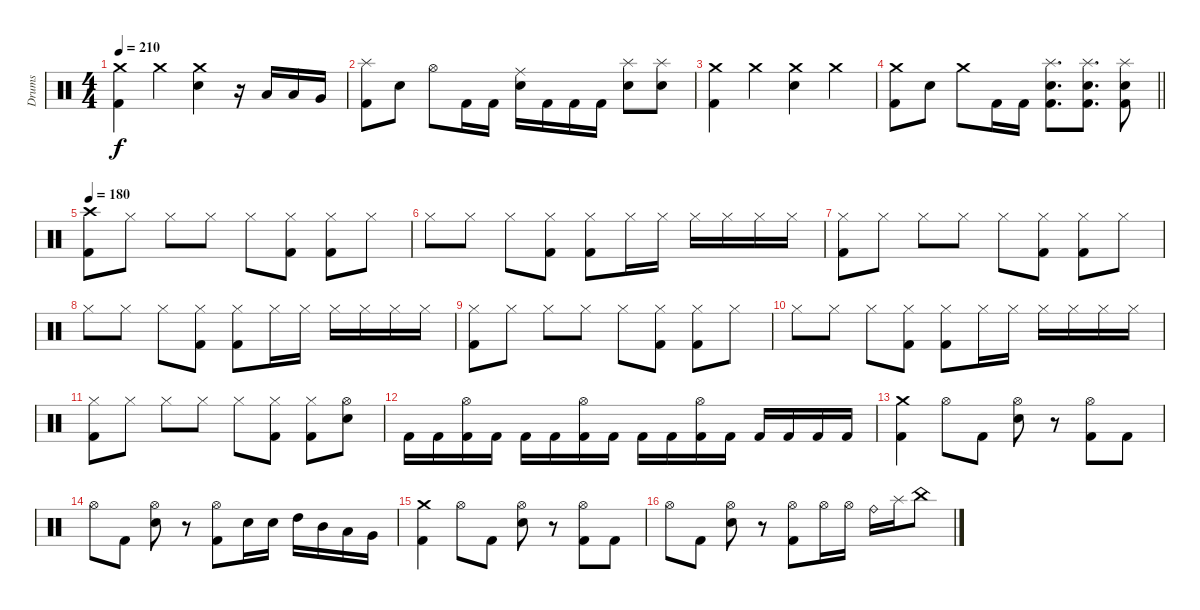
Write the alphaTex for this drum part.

\track ("Drums" "Drums") {instrument percussion}
\staff {score}
\articulation defaults
\ts (4 4)
\tempo 210
\clef neutral
\ks c
("Crash medium (hit)" "Kick (hit) 2").4{dy f} "Crash medium (hit)".4 ("Crash medium (hit)" "Electric Snare (hit)").4 r.16 "Low Tom (hit)".16 "Low Tom (hit)".16 "Very Low Tom (hit)".16 |
("Splash (hit)" "Kick (hit) 2").8 "Electric Snare (hit)".8 "Hi-Hat (open)".8 "Kick (hit) 2".16 "Kick (hit) 2".16 ("Ride (middle)" "Electric Snare (hit)").16 "Kick (hit) 2".16 "Kick (hit) 2".16 "Kick (hit) 2".16 ("Splash (hit)" "Electric Snare (hit)").8 ("Splash (hit)" "Electric Snare (hit)").8 |
("Crash medium (hit)" "Kick (hit) 2").4 "Crash medium (hit)".4 ("Crash medium (hit)" "Electric Snare (hit)").4 "Crash medium (hit)".4 |
\barLineRight lightlight
("Crash medium (hit)" "Kick (hit) 2").8 "Electric Snare (hit)".8 "Crash medium (hit)".8 "Kick (hit) 2".16 "Kick (hit) 2".16 ("Splash (hit)" "Electric Snare (hit)" "Kick (hit) 2").8{d} ("Splash (hit)" "Electric Snare (hit)" "Kick (hit) 2").8{d} ("Splash (hit)" "Electric Snare (hit)" "Kick (hit) 2").8 |
\section ("" "")
\tempo 180
("Crash high (hit)" "Kick (hit) 2").8 "Hi-Hat (closed)".8 "Hi-Hat (closed)".8 "Hi-Hat (closed)".8 "Hi-Hat (closed)".8 ("Hi-Hat (closed)" "Kick (hit) 2").8 ("Hi-Hat (closed)" "Kick (hit) 2").8 "Hi-Hat (closed)".8 |
"Hi-Hat (closed)".8 "Hi-Hat (closed)".8 "Hi-Hat (closed)".8 ("Hi-Hat (closed)" "Kick (hit) 2").8 ("Hi-Hat (closed)" "Kick (hit) 2").8 "Hi-Hat (closed)".16 "Hi-Hat (closed)".16 "Hi-Hat (closed)".16 "Hi-Hat (closed)".16 "Hi-Hat (closed)".16 "Hi-Hat (closed)".16 |
("Hi-Hat (closed)" "Kick (hit) 2").8 "Hi-Hat (closed)".8 "Hi-Hat (closed)".8 "Hi-Hat (closed)".8 "Hi-Hat (closed)".8 ("Hi-Hat (closed)" "Kick (hit) 2").8 ("Hi-Hat (closed)" "Kick (hit) 2").8 "Hi-Hat (closed)".8 |
"Hi-Hat (closed)".8 "Hi-Hat (closed)".8 "Hi-Hat (closed)".8 ("Hi-Hat (closed)" "Kick (hit) 2").8 ("Hi-Hat (closed)" "Kick (hit) 2").8 "Hi-Hat (closed)".16 "Hi-Hat (closed)".16 "Hi-Hat (closed)".16 "Hi-Hat (closed)".16 "Hi-Hat (closed)".16 "Hi-Hat (closed)".16 |
("Hi-Hat (closed)" "Kick (hit) 2").8 "Hi-Hat (closed)".8 "Hi-Hat (closed)".8 "Hi-Hat (closed)".8 "Hi-Hat (closed)".8 ("Hi-Hat (closed)" "Kick (hit) 2").8 ("Hi-Hat (closed)" "Kick (hit) 2").8 "Hi-Hat (closed)".8 |
"Hi-Hat (closed)".8 "Hi-Hat (closed)".8 "Hi-Hat (closed)".8 ("Hi-Hat (closed)" "Kick (hit) 2").8 ("Hi-Hat (closed)" "Kick (hit) 2").8 "Hi-Hat (closed)".16 "Hi-Hat (closed)".16 "Hi-Hat (closed)".16 "Hi-Hat (closed)".16 "Hi-Hat (closed)".16 "Hi-Hat (closed)".16 |
("Hi-Hat (closed)" "Kick (hit) 2").8 "Hi-Hat (closed)".8 "Hi-Hat (closed)".8 "Hi-Hat (closed)".8 "Hi-Hat (closed)".8 ("Hi-Hat (closed)" "Kick (hit) 2").8 ("Hi-Hat (closed)" "Kick (hit) 2").8 ("Hi-Hat (open)" "Electric Snare (hit)").8 |
"Kick (hit) 2".16 "Kick (hit) 2".16 ("Hi-Hat (open)" "Kick (hit) 2").16 "Kick (hit) 2".16 "Kick (hit) 2".16 "Kick (hit) 2".16 ("Hi-Hat (open)" "Kick (hit) 2").16 "Kick (hit) 2".16 "Kick (hit) 2".16 "Kick (hit) 2".16 ("Hi-Hat (open)" "Kick (hit) 2").16 "Kick (hit) 2".16 "Kick (hit) 2".16 "Kick (hit) 2".16 "Kick (hit) 2".16 "Kick (hit) 2".16 |
("Crash medium (hit)" "Kick (hit) 2").4 "Hi-Hat (open)".8 "Kick (hit) 2".8 ("Hi-Hat (open)" "Electric Snare (hit)").8 r.8 ("Hi-Hat (open)" "Kick (hit) 2").8 "Kick (hit) 2".8 |
"Hi-Hat (open)".8 "Kick (hit) 2".8 ("Hi-Hat (open)" "Electric Snare (hit)").8 r.8 ("Hi-Hat (open)" "Kick (hit) 2").8 "Electric Snare (hit)".16 "Electric Snare (hit)".16 "High Tom (hit)".16 "Mid Tom (hit)".16 "Low Tom (hit)".16 "Very Low Tom (hit)".16 |
("Crash medium (hit)" "Kick (hit) 2").4 "Hi-Hat (open)".8 "Kick (hit) 2".8 ("Hi-Hat (open)" "Electric Snare (hit)").8 r.8 ("Hi-Hat (open)" "Kick (hit) 2").8 "Kick (hit) 2".8 |
"Hi-Hat (open)".8 "Kick (hit) 2".8 ("Hi-Hat (open)" "Electric Snare (hit)").8 r.8 ("Hi-Hat (open)" "Kick (hit) 2").8 "Hi-Hat (open)".16 "Hi-Hat (open)".16 "Ride (bell)".16 "Splash (hit)".16 "China (hit)".8
